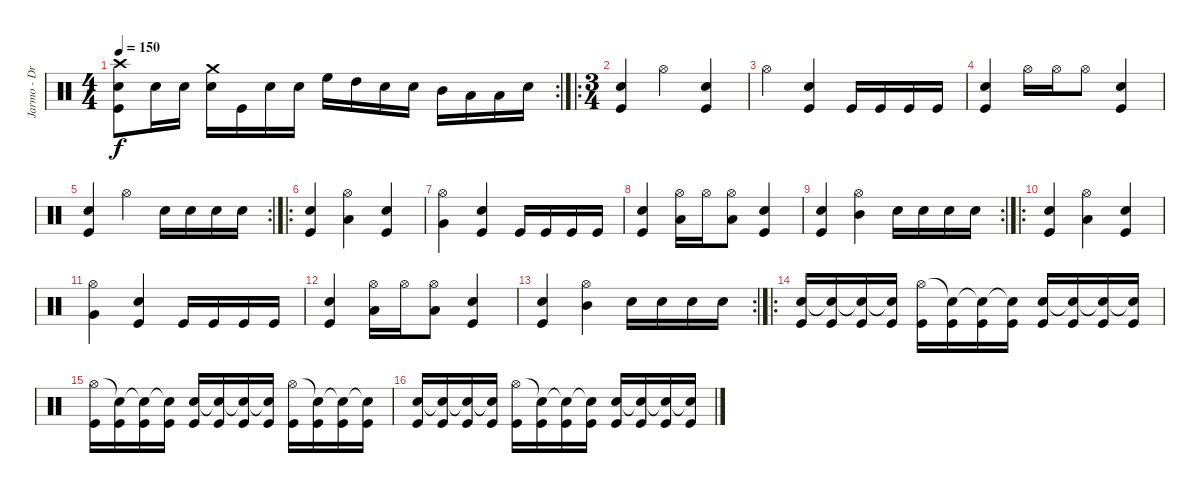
\track ("Jarmo - Drums/Vodka" "Jarmo - Dr") {instrument percussion}
\staff {score}
\articulation defaults
\rc 2
\ts (4 4)
\tempo 150
\clef neutral
\ks c
("Kick (hit)" "Electric Snare (hit)" "Crash high (hit)").8{dy f} "Electric Snare (hit)".16 "Electric Snare (hit)".16 ("Electric Snare (hit)" "Crash medium (hit)").16 "Kick (hit)".16 "Electric Snare (hit)".16 "Electric Snare (hit)".16 "High Floor Tom (hit)".16 "High Tom (hit)".16 "Electric Snare (hit)".16 "Electric Snare (hit)".16 "Mid Tom (hit)".16 "Low Tom (hit)".16 "Low Tom (hit)".16 "Electric Snare (hit)".16 |
\ro
\ts (3 4)
("Kick (hit)" "Electric Snare (hit)").4 "Hi-Hat (open)".4 ("Kick (hit)" "Electric Snare (hit)").4 |
"Hi-Hat (open)".4 ("Kick (hit)" "Electric Snare (hit)").4 "Kick (hit)".16 "Kick (hit)".16 "Kick (hit)".16 "Kick (hit)".16 |
("Kick (hit)" "Electric Snare (hit)").4 "Hi-Hat (open)".16 "Hi-Hat (open)".16 "Hi-Hat (open)".8 ("Kick (hit)" "Electric Snare (hit)").4 |
\rc 2
("Kick (hit)" "Electric Snare (hit)").4 "Hi-Hat (open)".4 "Electric Snare (hit)".16 "Electric Snare (hit)".16 "Electric Snare (hit)".16 "Electric Snare (hit)".16 |
\ro
("Kick (hit)" "Electric Snare (hit)").4 ("Hi-Hat (open)" "Low Floor Tom (hit)").4 ("Kick (hit)" "Electric Snare (hit)").4 |
("Hi-Hat (open)" "Very Low Tom (hit)").4 ("Kick (hit)" "Electric Snare (hit)").4 "Kick (hit)".16 "Kick (hit)".16 "Kick (hit)".16 "Kick (hit)".16 |
("Kick (hit)" "Electric Snare (hit)").4 ("Hi-Hat (open)" "Low Tom (hit)").16 "Hi-Hat (open)".16 ("Hi-Hat (open)" "Low Tom (hit)").8 ("Kick (hit)" "Electric Snare (hit)").4 |
\rc 2
("Kick (hit)" "Electric Snare (hit)").4 ("Hi-Hat (open)" "Mid Tom (hit)").4 "Electric Snare (hit)".16 "Electric Snare (hit)".16 "Electric Snare (hit)".16 "Electric Snare (hit)".16 |
\ro
("Kick (hit)" "Electric Snare (hit)").4 ("Hi-Hat (open)" "Low Floor Tom (hit)").4 ("Kick (hit)" "Electric Snare (hit)").4 |
("Hi-Hat (open)" "Very Low Tom (hit)").4 ("Kick (hit)" "Electric Snare (hit)").4 "Kick (hit)".16 "Kick (hit)".16 "Kick (hit)".16 "Kick (hit)".16 |
("Kick (hit)" "Electric Snare (hit)").4 ("Hi-Hat (open)" "Low Tom (hit)").16 "Hi-Hat (open)".16 ("Hi-Hat (open)" "Low Tom (hit)").8 ("Kick (hit)" "Electric Snare (hit)").4 |
\rc 2
("Kick (hit)" "Electric Snare (hit)").4 ("Hi-Hat (open)" "Mid Tom (hit)").4 "Electric Snare (hit)".16 "Electric Snare (hit)".16 "Electric Snare (hit)".16 "Electric Snare (hit)".16 |
\ro
("Kick (hit)" "Electric Snare (hit)").16 ("Kick (hit)" "Snare (hit)"{t}).16 ("Kick (hit)" "Snare (hit)"{t}).16 ("Kick (hit)" "Snare (hit)"{t}).16 ("Kick (hit)" "Hi-Hat (open)").16 ("Kick (hit)" "Snare (hit)"{t}).16 ("Kick (hit)" "Snare (hit)"{t}).16 ("Kick (hit)" "Snare (hit)"{t}).16 ("Kick (hit)" "Electric Snare (hit)").16 ("Kick (hit)" "Snare (hit)"{t}).16 ("Kick (hit)" "Snare (hit)"{t}).16 ("Kick (hit)" "Snare (hit)"{t}).16 |
("Kick (hit)" "Hi-Hat (open)").16 ("Kick (hit)" "Snare (hit)"{t}).16 ("Kick (hit)" "Snare (hit)"{t}).16 ("Kick (hit)" "Snare (hit)"{t}).16 ("Kick (hit)" "Electric Snare (hit)").16 ("Kick (hit)" "Snare (hit)"{t}).16 ("Kick (hit)" "Snare (hit)"{t}).16 ("Kick (hit)" "Snare (hit)"{t}).16 ("Kick (hit)" "Hi-Hat (open)").16 ("Kick (hit)" "Snare (hit)"{t}).16 ("Kick (hit)" "Snare (hit)"{t}).16 ("Kick (hit)" "Snare (hit)"{t}).16 |
("Kick (hit)" "Electric Snare (hit)").16 ("Kick (hit)" "Snare (hit)"{t}).16 ("Kick (hit)" "Snare (hit)"{t}).16 ("Kick (hit)" "Snare (hit)"{t}).16 ("Kick (hit)" "Hi-Hat (open)").16 ("Kick (hit)" "Snare (hit)"{t}).16 ("Kick (hit)" "Snare (hit)"{t}).16 ("Kick (hit)" "Snare (hit)"{t}).16 ("Kick (hit)" "Electric Snare (hit)").16 ("Kick (hit)" "Snare (hit)"{t}).16 ("Kick (hit)" "Snare (hit)"{t}).16 ("Kick (hit)" "Snare (hit)"{t}).16
